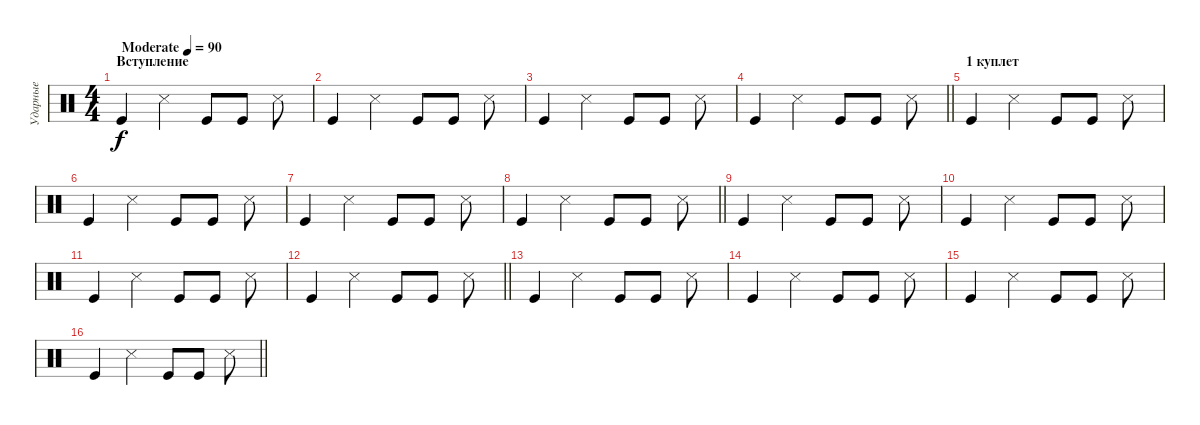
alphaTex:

\track ("Ударные" "Ударные") {instrument percussion}
\staff {score}
\articulation defaults
\ts (4 4)
\section ("" "Вступление")
\tempo (90 "Moderate")
\clef neutral
\ks c "Kick (hit)".4{dy f} "Snare (side stick) 3".4 "Kick (hit)".8 "Kick (hit)".8 "Snare (side stick) 3".8
|
"Kick (hit)".4 "Snare (side stick) 3".4 "Kick (hit)".8 "Kick (hit)".8 "Snare (side stick) 3".8 |
"Kick (hit)".4 "Snare (side stick) 3".4 "Kick (hit)".8 "Kick (hit)".8 "Snare (side stick) 3".8 |
\barLineRight lightlight "Kick (hit)".4 "Snare (side stick) 3".4 "Kick (hit)".8 "Kick (hit)".8 "Snare (side stick) 3".8
|
\section ("" "1 куплет")
"Kick (hit)".4 "Snare (side stick) 3".4 "Kick (hit)".8 "Kick (hit)".8 "Snare (side stick) 3".8 |
"Kick (hit)".4 "Snare (side stick) 3".4 "Kick (hit)".8 "Kick (hit)".8 "Snare (side stick) 3".8 |
"Kick (hit)".4 "Snare (side stick) 3".4 "Kick (hit)".8 "Kick (hit)".8 "Snare (side stick) 3".8 |
\barLineRight lightlight "Kick (hit)".4 "Snare (side stick) 3".4 "Kick (hit)".8 "Kick (hit)".8 "Snare (side stick) 3".8
|
"Kick (hit)".4 "Snare (side stick) 3".4 "Kick (hit)".8 "Kick (hit)".8 "Snare (side stick) 3".8 |
"Kick (hit)".4 "Snare (side stick) 3".4 "Kick (hit)".8 "Kick (hit)".8 "Snare (side stick) 3".8 |
"Kick (hit)".4 "Snare (side stick) 3".4 "Kick (hit)".8 "Kick (hit)".8 "Snare (side stick) 3".8 |
\barLineRight lightlight "Kick (hit)".4 "Snare (side stick) 3".4 "Kick (hit)".8 "Kick (hit)".8 "Snare (side stick) 3".8
|
"Kick (hit)".4 "Snare (side stick) 3".4 "Kick (hit)".8 "Kick (hit)".8 "Snare (side stick) 3".8 |
"Kick (hit)".4 "Snare (side stick) 3".4 "Kick (hit)".8 "Kick (hit)".8 "Snare (side stick) 3".8 |
"Kick (hit)".4 "Snare (side stick) 3".4 "Kick (hit)".8 "Kick (hit)".8 "Snare (side stick) 3".8 |
\barLineRight lightlight "Kick (hit)".4 "Snare (side stick) 3".4 "Kick (hit)".8 "Kick (hit)".8 "Snare (side stick) 3".8
